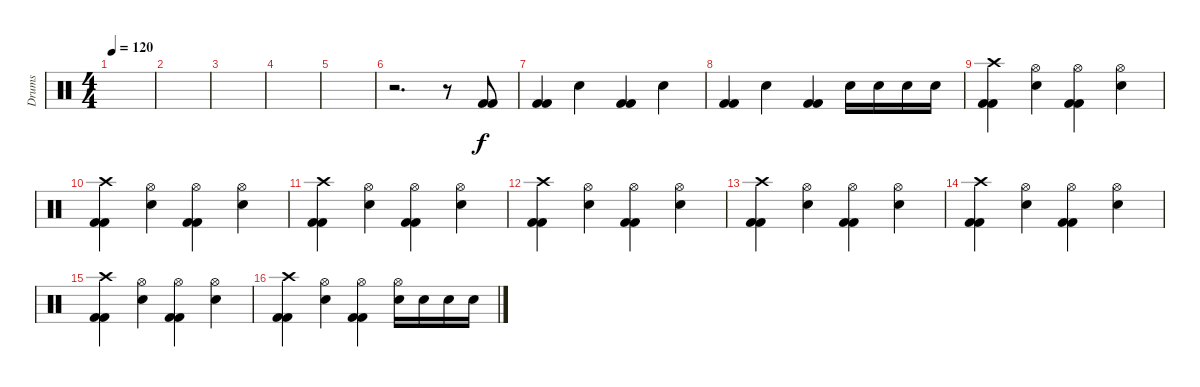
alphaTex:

\track ("Drums" "Drums") {instrument percussion}
\staff {score}
\articulation defaults
\ts (4 4)
\tempo 120
\clef neutral
\ks c
|
|
|
|
|
r.2{d} r.8 ("Kick (hit) 2" "Kick (hit) 2").8 |
("Kick (hit) 2" "Kick (hit) 2").4 "Snare (hit) 2".4 ("Kick (hit) 2" "Kick (hit) 2").4 "Snare (hit) 2".4 |
("Kick (hit) 2" "Kick (hit) 2").4 "Snare (hit) 2".4 ("Kick (hit) 2" "Kick (hit) 2").4 "Snare (hit) 2".16 "Snare (hit) 2".16 "Snare (hit) 2".16 "Snare (hit) 2".16 |
("Crash high (hit)" "Kick (hit) 2" "Kick (hit) 2").4 ("Hi-Hat (open)" "Snare (hit) 2").4 ("Hi-Hat (open)" "Kick (hit) 2" "Kick (hit) 2").4 ("Hi-Hat (open)" "Snare (hit) 2").4 |
("Crash high (hit)" "Kick (hit) 2" "Kick (hit) 2").4 ("Hi-Hat (open)" "Snare (hit) 2").4 ("Hi-Hat (open)" "Kick (hit) 2" "Kick (hit) 2").4 ("Hi-Hat (open)" "Snare (hit) 2").4 |
("Crash high (hit)" "Kick (hit) 2" "Kick (hit) 2").4 ("Hi-Hat (open)" "Snare (hit) 2").4 ("Hi-Hat (open)" "Kick (hit) 2" "Kick (hit) 2").4 ("Hi-Hat (open)" "Snare (hit) 2").4 |
("Crash high (hit)" "Kick (hit) 2" "Kick (hit) 2").4 ("Hi-Hat (open)" "Snare (hit) 2").4 ("Hi-Hat (open)" "Kick (hit) 2" "Kick (hit) 2").4 ("Hi-Hat (open)" "Snare (hit) 2").4 |
("Crash high (hit)" "Kick (hit) 2" "Kick (hit) 2").4 ("Hi-Hat (open)" "Snare (hit) 2").4 ("Hi-Hat (open)" "Kick (hit) 2" "Kick (hit) 2").4 ("Hi-Hat (open)" "Snare (hit) 2").4 |
("Crash high (hit)" "Kick (hit) 2" "Kick (hit) 2").4 ("Hi-Hat (open)" "Snare (hit) 2").4 ("Hi-Hat (open)" "Kick (hit) 2" "Kick (hit) 2").4 ("Hi-Hat (open)" "Snare (hit) 2").4 |
("Crash high (hit)" "Kick (hit) 2" "Kick (hit) 2").4 ("Hi-Hat (open)" "Snare (hit) 2").4 ("Hi-Hat (open)" "Kick (hit) 2" "Kick (hit) 2").4 ("Hi-Hat (open)" "Snare (hit) 2").4 |
("Crash high (hit)" "Kick (hit) 2" "Kick (hit) 2").4 ("Hi-Hat (open)" "Snare (hit) 2").4 ("Hi-Hat (open)" "Kick (hit) 2" "Kick (hit) 2").4 ("Hi-Hat (open)" "Snare (hit) 2").16 "Snare (hit) 2".16 "Snare (hit) 2".16 "Snare (hit) 2".16
